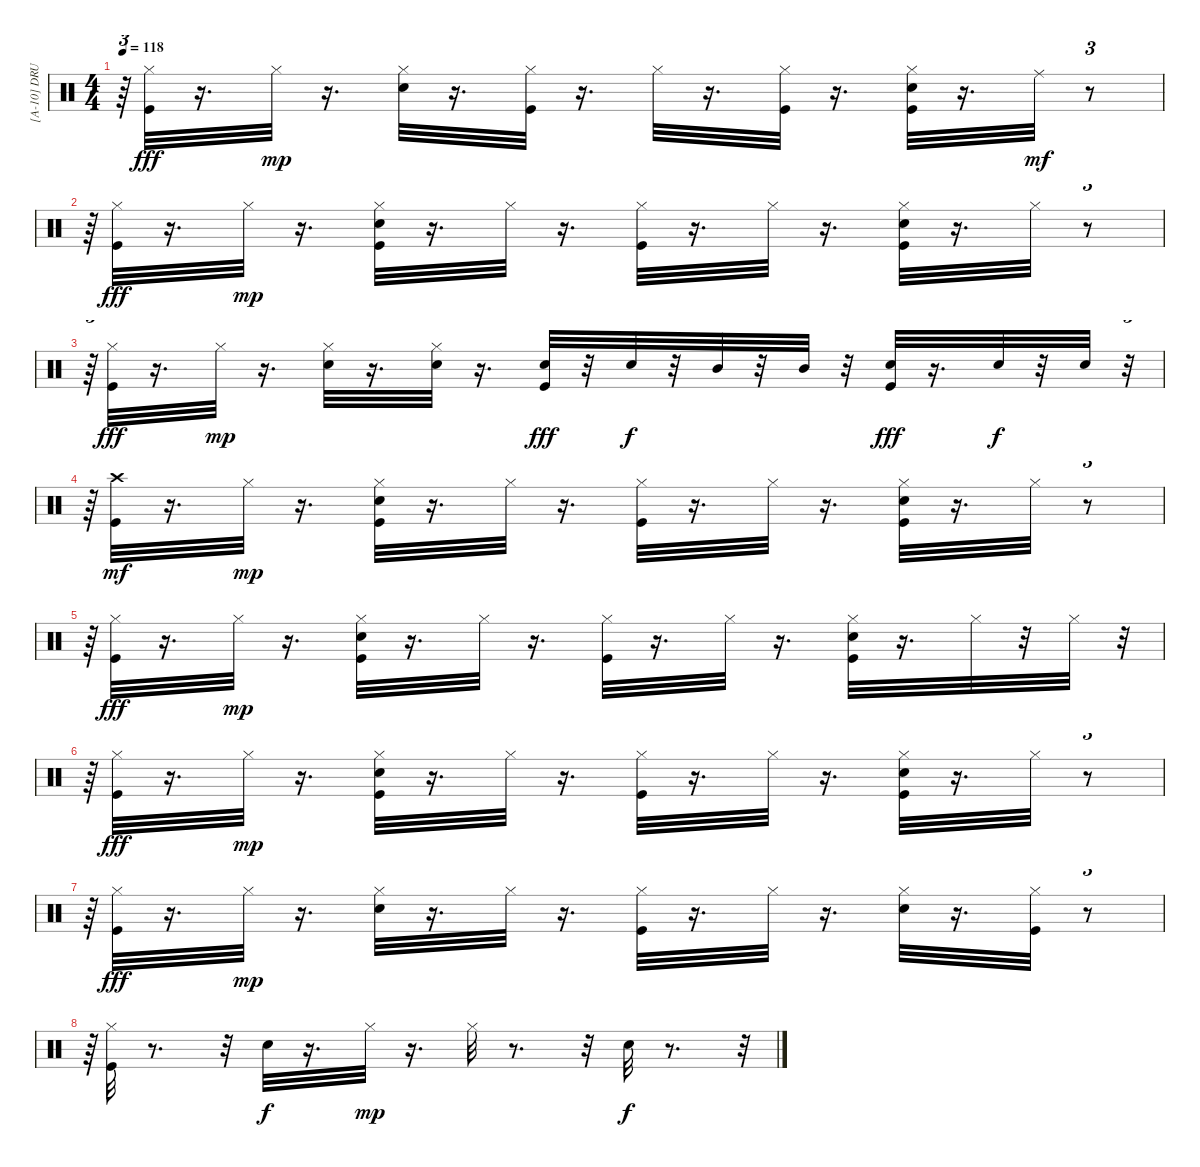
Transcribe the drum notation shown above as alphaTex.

\track ("[A-10] DRUM" "[A-10] DRU") {instrument percussion}
\staff {score}
\articulation defaults
\ts (4 4)
\tempo 118
\clef neutral
\ks c
r.64{tu (3 2) dy mp} ("Hi-Hat (closed)" "Kick (hit)").32{dy fff} r.16{d} "Hi-Hat (closed)".32{dy mp} r.16{d} ("Snare (hit) 2" "Hi-Hat (closed)").32 r.16{d} ("Kick (hit)" "Hi-Hat (closed)").32 r.16{d} "Hi-Hat (closed)".32 r.16{d} ("Kick (hit)" "Hi-Hat (closed)").32 r.16{d} ("Kick (hit)" "Hi-Hat (closed)" "Snare (hit) 2").32 r.16{d} "Ride (middle)".32{dy mf} r.8{tu (3 2)} |
r.64{tu (3 2)} ("Hi-Hat (closed)" "Kick (hit)").32{dy fff} r.16{d} "Hi-Hat (closed)".32{dy mp} r.16{d} ("Kick (hit)" "Hi-Hat (closed)" "Snare (hit) 2").32 r.16{d} "Hi-Hat (closed)".32 r.16{d} ("Kick (hit)" "Hi-Hat (closed)").32 r.16{d} "Hi-Hat (closed)".32 r.16{d} ("Kick (hit)" "Hi-Hat (closed)" "Snare (hit) 2").32 r.16{d} "Hi-Hat (closed)".32 r.8{tu (3 2)} |
r.64{tu (3 2)} ("Hi-Hat (closed)" "Kick (hit)").32{dy fff} r.16{d} "Hi-Hat (closed)".32{dy mp} r.16{d} ("Snare (hit) 2" "Hi-Hat (closed)").32 r.16{d} ("Snare (hit) 2" "Hi-Hat (closed)").32 r.16{d} ("Snare (hit) 2" "Kick (hit)").32{dy fff} r.32 "Snare (hit) 2".32{dy f} r.32 "Mid Tom (hit)".32 r.32 "Mid Tom (hit)".32 r.32 ("Snare (hit) 2" "Kick (hit)").32{dy fff} r.16{d} "Snare (hit) 2".32{dy f} r.32 "Snare (hit) 2".32 r.32{tu (3 2)} |
r.64{tu (3 2)} ("Kick (hit)" "Crash high (hit)").32{dy mf} r.16{d} "Hi-Hat (closed)".32{dy mp} r.16{d} ("Kick (hit)" "Hi-Hat (closed)" "Snare (hit) 2").32 r.16{d} "Hi-Hat (closed)".32 r.16{d} ("Kick (hit)" "Hi-Hat (closed)").32 r.16{d} "Hi-Hat (closed)".32 r.16{d} ("Kick (hit)" "Hi-Hat (closed)" "Snare (hit) 2").32 r.16{d} "Hi-Hat (closed)".32 r.8{tu (3 2)} |
r.64{tu (3 2)} ("Hi-Hat (closed)" "Kick (hit)").32{dy fff} r.16{d} "Hi-Hat (closed)".32{dy mp} r.16{d} ("Kick (hit)" "Hi-Hat (closed)" "Snare (hit) 2").32 r.16{d} "Hi-Hat (closed)".32 r.16{d} ("Kick (hit)" "Hi-Hat (closed)").32 r.16{d} "Hi-Hat (closed)".32 r.16{d} ("Kick (hit)" "Hi-Hat (closed)" "Snare (hit) 2").32 r.16{d} "Hi-Hat (closed)".32 r.32 "Hi-Hat (closed)".32 r.32{tu (3 2)} |
r.64{tu (3 2)} ("Hi-Hat (closed)" "Kick (hit)").32{dy fff} r.16{d} "Hi-Hat (closed)".32{dy mp} r.16{d} ("Kick (hit)" "Hi-Hat (closed)" "Snare (hit) 2").32 r.16{d} "Hi-Hat (closed)".32 r.16{d} ("Kick (hit)" "Hi-Hat (closed)").32 r.16{d} "Hi-Hat (closed)".32 r.16{d} ("Kick (hit)" "Hi-Hat (closed)" "Snare (hit) 2").32 r.16{d} "Hi-Hat (closed)".32 r.8{tu (3 2)} |
r.64{tu (3 2)} ("Hi-Hat (closed)" "Kick (hit)").32{dy fff} r.16{d} "Hi-Hat (closed)".32{dy mp} r.16{d} ("Snare (hit) 2" "Hi-Hat (closed)").32 r.16{d} "Hi-Hat (closed)".32 r.16{d} ("Kick (hit)" "Hi-Hat (closed)").32 r.16{d} "Hi-Hat (closed)".32 r.16{d} ("Snare (hit) 2" "Hi-Hat (closed)").32 r.16{d} ("Kick (hit)" "Hi-Hat (closed)").32 r.8{tu (3 2)} |
r.64{tu (3 2)} ("Kick (hit)" "Hi-Hat (closed)").32 r.8{d} r.32 "Snare (hit) 2".32{dy f} r.16{d} "Hi-Hat (closed)".32{dy mp} r.16{d} "Hi-Hat (closed)".32 r.8{d} r.32 "Snare (hit) 2".32{dy f} r.8{d} r.32{tu (3 2)}
